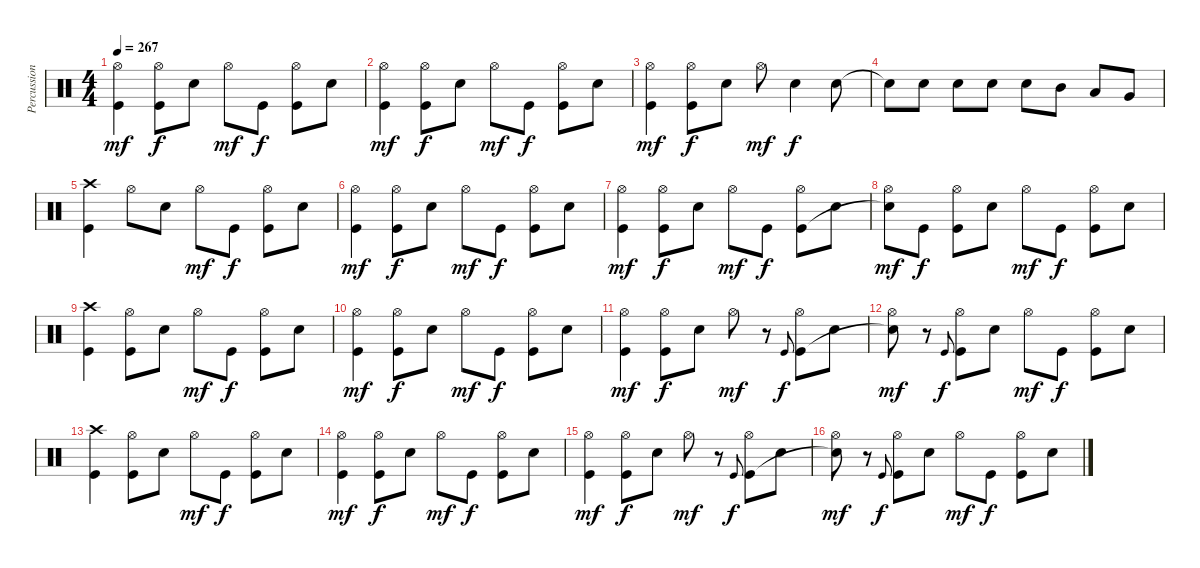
\track ("Percussion" "Percussion") {instrument percussion}
\staff {score}
\articulation defaults
\ts (4 4)
\tempo 267
\clef neutral
\ks c
("Hi-Hat (open)" "Kick (hit)").4{dy mf} ("Hi-Hat (open)" "Kick (hit)").8{dy f} "Electric Snare (hit)".8 "Hi-Hat (open)".8{dy mf} "Kick (hit)".8{dy f} ("Hi-Hat (open)" "Kick (hit)").8 "Electric Snare (hit)".8 |
("Hi-Hat (open)" "Kick (hit)").4{dy mf} ("Hi-Hat (open)" "Kick (hit)").8{dy f} "Electric Snare (hit)".8 "Hi-Hat (open)".8{dy mf} "Kick (hit)".8{dy f} ("Hi-Hat (open)" "Kick (hit)").8 "Electric Snare (hit)".8 |
("Hi-Hat (open)" "Kick (hit)").4{dy mf} ("Hi-Hat (open)" "Kick (hit)").8{dy f} "Electric Snare (hit)".8 "Hi-Hat (open)".8{dy mf} "Electric Snare (hit)".4{dy f} "Electric Snare (hit)".8 |
"Snare (hit)"{t}.8 "Electric Snare (hit)".8 "Electric Snare (hit)".8 "Electric Snare (hit)".8 "Electric Snare (hit)".8 "Mid Tom (hit)".8 "Low Tom (hit)".8 "Very Low Tom (hit)".8 |
("Crash high (hit)" "Kick (hit)").4 "Hi-Hat (open)".8 "Electric Snare (hit)".8 "Hi-Hat (open)".8{dy mf} "Kick (hit)".8{dy f} ("Hi-Hat (open)" "Kick (hit)").8 "Electric Snare (hit)".8 |
("Hi-Hat (open)" "Kick (hit)").4{dy mf} ("Hi-Hat (open)" "Kick (hit)").8{dy f} "Electric Snare (hit)".8 "Hi-Hat (open)".8{dy mf} "Kick (hit)".8{dy f} ("Hi-Hat (open)" "Kick (hit)").8 "Electric Snare (hit)".8 |
("Hi-Hat (open)" "Kick (hit)").4{dy mf} ("Hi-Hat (open)" "Kick (hit)").8{dy f} "Electric Snare (hit)".8 "Hi-Hat (open)".8{dy mf} "Kick (hit)".8{dy f} ("Hi-Hat (open)" "Kick (hit)").8 "Electric Snare (hit)".8 |
("Hi-Hat (open)" "Snare (hit)"{t}).8{dy mf} "Kick (hit)".8{dy f} ("Hi-Hat (open)" "Kick (hit)").8 "Electric Snare (hit)".8 "Hi-Hat (open)".8{dy mf} "Kick (hit)".8{dy f} ("Hi-Hat (open)" "Kick (hit)").8 "Electric Snare (hit)".8 |
("Crash high (hit)" "Kick (hit)").4 ("Hi-Hat (open)" "Kick (hit)").8 "Electric Snare (hit)".8 "Hi-Hat (open)".8{dy mf} "Kick (hit)".8{dy f} ("Hi-Hat (open)" "Kick (hit)").8 "Electric Snare (hit)".8 |
("Hi-Hat (open)" "Kick (hit)").4{dy mf} ("Hi-Hat (open)" "Kick (hit)").8{dy f} "Electric Snare (hit)".8 "Hi-Hat (open)".8{dy mf} "Kick (hit)".8{dy f} ("Hi-Hat (open)" "Kick (hit)").8 "Electric Snare (hit)".8 |
("Hi-Hat (open)" "Kick (hit)").4{dy mf} ("Hi-Hat (open)" "Kick (hit)").8{dy f} "Electric Snare (hit)".8 "Hi-Hat (open)".8{dy mf} r.8 "Kick (hit)".8{gr onbeat dy f} ("Hi-Hat (open)" "Kick (hit)").8 "Electric Snare (hit)".8 |
("Hi-Hat (open)" "Snare (hit)"{t}).8{dy mf} r.8 "Kick (hit)".8{gr onbeat dy f} ("Hi-Hat (open)" "Kick (hit)").8 "Electric Snare (hit)".8 "Hi-Hat (open)".8{dy mf} "Kick (hit)".8{dy f} ("Hi-Hat (open)" "Kick (hit)").8 "Electric Snare (hit)".8 |
("Crash high (hit)" "Kick (hit)").4 ("Hi-Hat (open)" "Kick (hit)").8 "Electric Snare (hit)".8 "Hi-Hat (open)".8{dy mf} "Kick (hit)".8{dy f} ("Hi-Hat (open)" "Kick (hit)").8 "Electric Snare (hit)".8 |
("Hi-Hat (open)" "Kick (hit)").4{dy mf} ("Hi-Hat (open)" "Kick (hit)").8{dy f} "Electric Snare (hit)".8 "Hi-Hat (open)".8{dy mf} "Kick (hit)".8{dy f} ("Hi-Hat (open)" "Kick (hit)").8 "Electric Snare (hit)".8 |
("Hi-Hat (open)" "Kick (hit)").4{dy mf} ("Hi-Hat (open)" "Kick (hit)").8{dy f} "Electric Snare (hit)".8 "Hi-Hat (open)".8{dy mf} r.8 "Kick (hit)".8{gr onbeat dy f} ("Hi-Hat (open)" "Kick (hit)").8 "Electric Snare (hit)".8 |
("Hi-Hat (open)" "Snare (hit)"{t}).8{dy mf} r.8 "Kick (hit)".8{gr onbeat dy f} ("Hi-Hat (open)" "Kick (hit)").8 "Electric Snare (hit)".8 "Hi-Hat (open)".8{dy mf} "Kick (hit)".8{dy f} ("Hi-Hat (open)" "Kick (hit)").8 "Electric Snare (hit)".8
